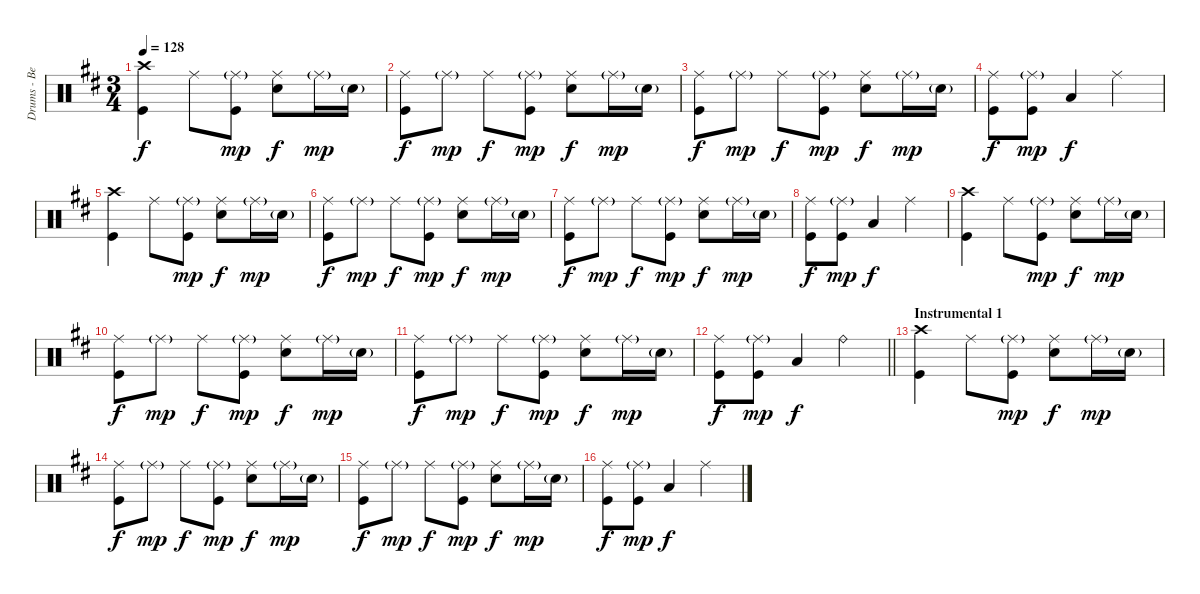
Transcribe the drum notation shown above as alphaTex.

\track ("Drums - Ben Johnston" "Drums - Be") {instrument percussion}
\staff {score}
\articulation defaults
\ts (3 4)
\tempo 128
\clef neutral
\ks d
("Crash high (hit)" "Kick (hit)").4{dy f} "Ride (middle)".8 ("Ride (middle)"{g} "Kick (hit)").8{dy mp} ("Ride (middle)" "Snare (hit) 2").8{dy f} "Ride (middle)"{g}.16{dy mp} "Snare (hit) 2"{g}.16 |
("Ride (middle)" "Kick (hit)").8{dy f} "Ride (middle)"{g}.8{dy mp} "Ride (middle)".8{dy f} ("Ride (middle)"{g} "Kick (hit)").8{dy mp} ("Ride (middle)" "Snare (hit) 2").8{dy f} "Ride (middle)"{g}.16{dy mp} "Snare (hit) 2"{g}.16 |
("Ride (middle)" "Kick (hit)").8{dy f} "Ride (middle)"{g}.8{dy mp} "Ride (middle)".8{dy f} ("Ride (middle)"{g} "Kick (hit)").8{dy mp} ("Ride (middle)" "Snare (hit) 2").8{dy f} "Ride (middle)"{g}.16{dy mp} "Snare (hit) 2"{g}.16 |
("Ride (middle)" "Kick (hit)").8{dy f} ("Ride (middle)"{g} "Kick (hit)").8{dy mp} "Low Floor Tom (hit)".4{dy f} "Ride (middle)".4 |
("Crash high (hit)" "Kick (hit)").4 "Ride (middle)".8 ("Ride (middle)"{g} "Kick (hit)").8{dy mp} ("Ride (middle)" "Snare (hit) 2").8{dy f} "Ride (middle)"{g}.16{dy mp} "Snare (hit) 2"{g}.16 |
("Ride (middle)" "Kick (hit)").8{dy f} "Ride (middle)"{g}.8{dy mp} "Ride (middle)".8{dy f} ("Ride (middle)"{g} "Kick (hit)").8{dy mp} ("Ride (middle)" "Snare (hit) 2").8{dy f} "Ride (middle)"{g}.16{dy mp} "Snare (hit) 2"{g}.16 |
("Ride (middle)" "Kick (hit)").8{dy f} "Ride (middle)"{g}.8{dy mp} "Ride (middle)".8{dy f} ("Ride (middle)"{g} "Kick (hit)").8{dy mp} ("Ride (middle)" "Snare (hit) 2").8{dy f} "Ride (middle)"{g}.16{dy mp} "Snare (hit) 2"{g}.16 |
("Ride (middle)" "Kick (hit)").8{dy f} ("Ride (middle)"{g} "Kick (hit)").8{dy mp} "Low Floor Tom (hit)".4{dy f} "Ride (middle)".4 |
("Crash high (hit)" "Kick (hit)").4 "Ride (middle)".8 ("Ride (middle)"{g} "Kick (hit)").8{dy mp} ("Ride (middle)" "Snare (hit) 2").8{dy f} "Ride (middle)"{g}.16{dy mp} "Snare (hit) 2"{g}.16 |
("Ride (middle)" "Kick (hit)").8{dy f} "Ride (middle)"{g}.8{dy mp} "Ride (middle)".8{dy f} ("Ride (middle)"{g} "Kick (hit)").8{dy mp} ("Ride (middle)" "Snare (hit) 2").8{dy f} "Ride (middle)"{g}.16{dy mp} "Snare (hit) 2"{g}.16 |
("Ride (middle)" "Kick (hit)").8{dy f} "Ride (middle)"{g}.8{dy mp} "Ride (middle)".8{dy f} ("Ride (middle)"{g} "Kick (hit)").8{dy mp} ("Ride (middle)" "Snare (hit) 2").8{dy f} "Ride (middle)"{g}.16{dy mp} "Snare (hit) 2"{g}.16 |
\barLineRight lightlight
("Ride (middle)" "Kick (hit)").8{dy f} ("Ride (middle)"{g} "Kick (hit)").8{dy mp} "Low Floor Tom (hit)".4{dy f} "Ride (bell)".4 |
\section ("" "Instrumental 1")
("Crash high (hit)" "Kick (hit)").4 "Ride (middle)".8 ("Ride (middle)"{g} "Kick (hit)").8{dy mp} ("Ride (middle)" "Snare (hit) 2").8{dy f} "Ride (middle)"{g}.16{dy mp} "Snare (hit) 2"{g}.16 |
("Ride (middle)" "Kick (hit)").8{dy f} "Ride (middle)"{g}.8{dy mp} "Ride (middle)".8{dy f} ("Ride (middle)"{g} "Kick (hit)").8{dy mp} ("Ride (middle)" "Snare (hit) 2").8{dy f} "Ride (middle)"{g}.16{dy mp} "Snare (hit) 2"{g}.16 |
("Ride (middle)" "Kick (hit)").8{dy f} "Ride (middle)"{g}.8{dy mp} "Ride (middle)".8{dy f} ("Ride (middle)"{g} "Kick (hit)").8{dy mp} ("Ride (middle)" "Snare (hit) 2").8{dy f} "Ride (middle)"{g}.16{dy mp} "Snare (hit) 2"{g}.16 |
("Ride (middle)" "Kick (hit)").8{dy f} ("Ride (middle)"{g} "Kick (hit)").8{dy mp} "Low Floor Tom (hit)".4{dy f} "Ride (middle)".4
